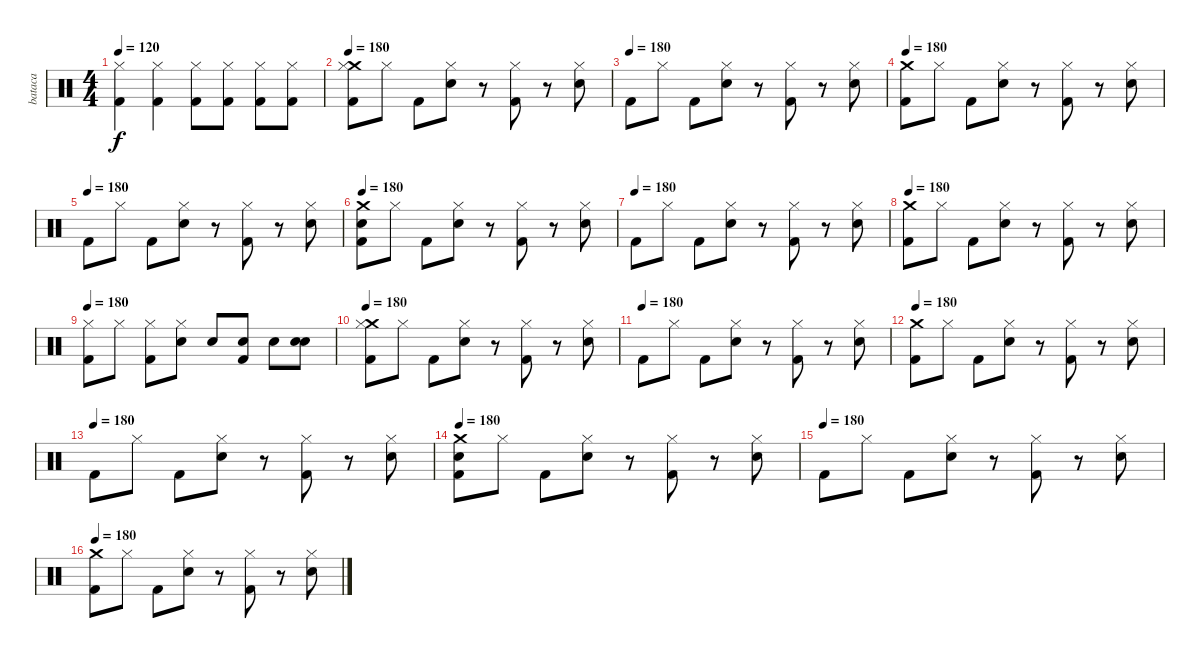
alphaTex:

\track ("bataca" "bataca") {instrument percussion}
\staff {score}
\articulation defaults
\ts (4 4)
\tempo 120
\tempo 100
\tempo 120
\clef neutral
\ks c
("Hi-Hat (closed)" "Kick (hit) 2").4{dy f} ("Hi-Hat (closed)" "Kick (hit) 2").4 ("Hi-Hat (closed)" "Kick (hit) 2").8 ("Hi-Hat (closed)" "Kick (hit) 2").8 ("Hi-Hat (closed)" "Kick (hit) 2").8 ("Hi-Hat (closed)" "Kick (hit) 2").8 |
\tempo 180
("Crash medium (hit)" "Hi-Hat (closed)" "Kick (hit) 2").8 "Hi-Hat (closed)".8 "Kick (hit) 2".8 ("Hi-Hat (closed)" "Snare (hit) 2").8 r.8 ("Hi-Hat (closed)" "Kick (hit) 2").8 r.8 ("Hi-Hat (closed)" "Snare (hit) 2").8 |
\tempo (180)
"Kick (hit) 2".8 "Hi-Hat (closed)".8 "Kick (hit) 2".8 ("Hi-Hat (closed)" "Snare (hit) 2").8 r.8 ("Hi-Hat (closed)" "Kick (hit) 2").8 r.8 ("Hi-Hat (closed)" "Snare (hit) 2").8 |
\tempo 180
("Crash medium (hit)" "Kick (hit) 2").8 "Hi-Hat (closed)".8 "Kick (hit) 2".8 ("Hi-Hat (closed)" "Snare (hit) 2").8 r.8 ("Hi-Hat (closed)" "Kick (hit) 2").8 r.8 ("Hi-Hat (closed)" "Snare (hit) 2").8 |
\tempo (180)
"Kick (hit) 2".8 "Hi-Hat (closed)".8 "Kick (hit) 2".8 ("Hi-Hat (closed)" "Snare (hit) 2").8 r.8 ("Hi-Hat (closed)" "Kick (hit) 2").8 r.8 ("Hi-Hat (closed)" "Snare (hit) 2").8 |
\tempo 180
("Crash medium (hit)" "Snare (hit) 2" "Kick (hit) 2").8 "Hi-Hat (closed)".8 "Kick (hit) 2".8 ("Hi-Hat (closed)" "Snare (hit) 2").8 r.8 ("Hi-Hat (closed)" "Kick (hit) 2").8 r.8 ("Hi-Hat (closed)" "Snare (hit) 2").8 |
\tempo (180)
"Kick (hit) 2".8 "Hi-Hat (closed)".8 "Kick (hit) 2".8 ("Hi-Hat (closed)" "Snare (hit) 2").8 r.8 ("Hi-Hat (closed)" "Kick (hit) 2").8 r.8 ("Hi-Hat (closed)" "Snare (hit) 2").8 |
\tempo 180
("Crash medium (hit)" "Kick (hit) 2").8 "Hi-Hat (closed)".8 "Kick (hit) 2".8 ("Hi-Hat (closed)" "Snare (hit) 2").8 r.8 ("Hi-Hat (closed)" "Kick (hit) 2").8 r.8 ("Hi-Hat (closed)" "Snare (hit) 2").8 |
\tempo 180
("Hi-Hat (closed)" "Kick (hit) 2").8 "Hi-Hat (closed)".8 ("Hi-Hat (closed)" "Kick (hit) 2").8 ("Hi-Hat (closed)" "Snare (hit) 2").8 "Snare (hit) 2".8 ("Snare (hit) 2" "Kick (hit) 2").8 "Snare (hit) 2".8 ("Snare (hit) 2" "Snare (hit) 2").8 |
\tempo 180
("Crash medium (hit)" "Hi-Hat (closed)" "Kick (hit) 2").8 "Hi-Hat (closed)".8 "Kick (hit) 2".8 ("Hi-Hat (closed)" "Snare (hit) 2").8 r.8 ("Hi-Hat (closed)" "Kick (hit) 2").8 r.8 ("Hi-Hat (closed)" "Snare (hit) 2").8 |
\tempo (180)
"Kick (hit) 2".8 "Hi-Hat (closed)".8 "Kick (hit) 2".8 ("Hi-Hat (closed)" "Snare (hit) 2").8 r.8 ("Hi-Hat (closed)" "Kick (hit) 2").8 r.8 ("Hi-Hat (closed)" "Snare (hit) 2").8 |
\tempo 180
("Crash medium (hit)" "Kick (hit) 2").8 "Hi-Hat (closed)".8 "Kick (hit) 2".8 ("Hi-Hat (closed)" "Snare (hit) 2").8 r.8 ("Hi-Hat (closed)" "Kick (hit) 2").8 r.8 ("Hi-Hat (closed)" "Snare (hit) 2").8 |
\tempo (180)
"Kick (hit) 2".8 "Hi-Hat (closed)".8 "Kick (hit) 2".8 ("Hi-Hat (closed)" "Snare (hit) 2").8 r.8 ("Hi-Hat (closed)" "Kick (hit) 2").8 r.8 ("Hi-Hat (closed)" "Snare (hit) 2").8 |
\tempo 180
("Crash medium (hit)" "Snare (hit) 2" "Kick (hit) 2").8 "Hi-Hat (closed)".8 "Kick (hit) 2".8 ("Hi-Hat (closed)" "Snare (hit) 2").8 r.8 ("Hi-Hat (closed)" "Kick (hit) 2").8 r.8 ("Hi-Hat (closed)" "Snare (hit) 2").8 |
\tempo (180)
"Kick (hit) 2".8 "Hi-Hat (closed)".8 "Kick (hit) 2".8 ("Hi-Hat (closed)" "Snare (hit) 2").8 r.8 ("Hi-Hat (closed)" "Kick (hit) 2").8 r.8 ("Hi-Hat (closed)" "Snare (hit) 2").8 |
\tempo 180
("Crash medium (hit)" "Kick (hit) 2").8 "Hi-Hat (closed)".8 "Kick (hit) 2".8 ("Hi-Hat (closed)" "Snare (hit) 2").8 r.8 ("Hi-Hat (closed)" "Kick (hit) 2").8 r.8 ("Hi-Hat (closed)" "Snare (hit) 2").8
